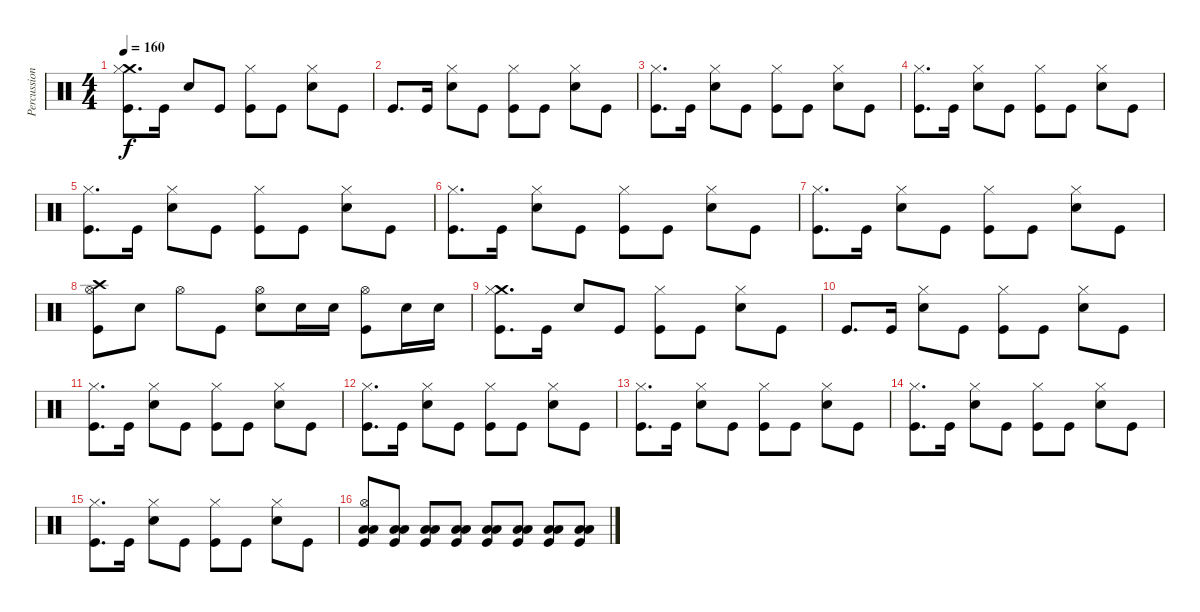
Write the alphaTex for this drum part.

\track ("Percussions" "Percussion") {instrument percussion}
\staff {score}
\articulation defaults
\ts (4 4)
\tempo 160
\clef neutral
\ks c
("Crash medium (hit)" "Hi-Hat (closed)" "Kick (hit)").8{d dy f} "Kick (hit)".16 "Snare (hit) 2".8 "Kick (hit)".8 ("Hi-Hat (closed)" "Kick (hit)").8 "Kick (hit)".8 ("Snare (hit) 2" "Hi-Hat (closed)").8 "Kick (hit)".8 |
"Kick (hit)".8{d} "Kick (hit)".16 ("Snare (hit) 2" "Hi-Hat (closed)").8 "Kick (hit)".8 ("Hi-Hat (closed)" "Kick (hit)").8 "Kick (hit)".8 ("Snare (hit) 2" "Hi-Hat (closed)").8 "Kick (hit)".8 |
("Hi-Hat (closed)" "Kick (hit)").8{d} "Kick (hit)".16 ("Snare (hit) 2" "Hi-Hat (closed)").8 "Kick (hit)".8 ("Hi-Hat (closed)" "Kick (hit)").8 "Kick (hit)".8 ("Snare (hit) 2" "Hi-Hat (closed)").8 "Kick (hit)".8 |
("Hi-Hat (closed)" "Kick (hit)").8{d} "Kick (hit)".16 ("Snare (hit) 2" "Hi-Hat (closed)").8 "Kick (hit)".8 ("Hi-Hat (closed)" "Kick (hit)").8 "Kick (hit)".8 ("Snare (hit) 2" "Hi-Hat (closed)").8 "Kick (hit)".8 |
("Hi-Hat (closed)" "Kick (hit)").8{d} "Kick (hit)".16 ("Snare (hit) 2" "Hi-Hat (closed)").8 "Kick (hit)".8 ("Hi-Hat (closed)" "Kick (hit)").8 "Kick (hit)".8 ("Snare (hit) 2" "Hi-Hat (closed)").8 "Kick (hit)".8 |
("Hi-Hat (closed)" "Kick (hit)").8{d} "Kick (hit)".16 ("Snare (hit) 2" "Hi-Hat (closed)").8 "Kick (hit)".8 ("Hi-Hat (closed)" "Kick (hit)").8 "Kick (hit)".8 ("Snare (hit) 2" "Hi-Hat (closed)").8 "Kick (hit)".8 |
("Hi-Hat (closed)" "Kick (hit)").8{d} "Kick (hit)".16 ("Snare (hit) 2" "Hi-Hat (closed)").8 "Kick (hit)".8 ("Hi-Hat (closed)" "Kick (hit)").8 "Kick (hit)".8 ("Snare (hit) 2" "Hi-Hat (closed)").8 "Kick (hit)".8 |
("Crash high (hit)" "Hi-Hat (open)" "Kick (hit)").8 "Snare (hit) 2".8 "Hi-Hat (open)".8 "Kick (hit)".8 ("Snare (hit) 2" "Hi-Hat (open)").8 "Snare (hit) 2".16 "Snare (hit) 2".16 ("Hi-Hat (open)" "Kick (hit)").8 "Snare (hit) 2".16 "Snare (hit) 2".16 |
("Crash medium (hit)" "Hi-Hat (closed)" "Kick (hit)").8{d} "Kick (hit)".16 "Snare (hit) 2".8 "Kick (hit)".8 ("Hi-Hat (closed)" "Kick (hit)").8 "Kick (hit)".8 ("Snare (hit) 2" "Hi-Hat (closed)").8 "Kick (hit)".8 |
"Kick (hit)".8{d} "Kick (hit)".16 ("Snare (hit) 2" "Hi-Hat (closed)").8 "Kick (hit)".8 ("Hi-Hat (closed)" "Kick (hit)").8 "Kick (hit)".8 ("Snare (hit) 2" "Hi-Hat (closed)").8 "Kick (hit)".8 |
("Hi-Hat (closed)" "Kick (hit)").8{d} "Kick (hit)".16 ("Snare (hit) 2" "Hi-Hat (closed)").8 "Kick (hit)".8 ("Hi-Hat (closed)" "Kick (hit)").8 "Kick (hit)".8 ("Snare (hit) 2" "Hi-Hat (closed)").8 "Kick (hit)".8 |
("Hi-Hat (closed)" "Kick (hit)").8{d} "Kick (hit)".16 ("Snare (hit) 2" "Hi-Hat (closed)").8 "Kick (hit)".8 ("Hi-Hat (closed)" "Kick (hit)").8 "Kick (hit)".8 ("Snare (hit) 2" "Hi-Hat (closed)").8 "Kick (hit)".8 |
("Hi-Hat (closed)" "Kick (hit)").8{d} "Kick (hit)".16 ("Snare (hit) 2" "Hi-Hat (closed)").8 "Kick (hit)".8 ("Hi-Hat (closed)" "Kick (hit)").8 "Kick (hit)".8 ("Snare (hit) 2" "Hi-Hat (closed)").8 "Kick (hit)".8 |
("Hi-Hat (closed)" "Kick (hit)").8{d} "Kick (hit)".16 ("Snare (hit) 2" "Hi-Hat (closed)").8 "Kick (hit)".8 ("Hi-Hat (closed)" "Kick (hit)").8 "Kick (hit)".8 ("Snare (hit) 2" "Hi-Hat (closed)").8 "Kick (hit)".8 |
("Hi-Hat (closed)" "Kick (hit)").8{d} "Kick (hit)".16 ("Snare (hit) 2" "Hi-Hat (closed)").8 "Kick (hit)".8 ("Hi-Hat (closed)" "Kick (hit)").8 "Kick (hit)".8 ("Snare (hit) 2" "Hi-Hat (closed)").8 "Kick (hit)".8 |
("Low Floor Tom (hit)" "Low Floor Tom (hit)" "Hi-Hat (open)" "Kick (hit)").8 ("Low Floor Tom (hit)" "Low Tom (hit)" "Kick (hit)").8 ("Low Floor Tom (hit)" "Low Tom (hit)" "Kick (hit)").8 ("Low Floor Tom (hit)" "Low Tom (hit)" "Kick (hit)").8 ("Low Floor Tom (hit)" "Low Tom (hit)" "Kick (hit)").8 ("Low Floor Tom (hit)" "Low Tom (hit)" "Kick (hit)").8 ("Low Floor Tom (hit)" "Low Tom (hit)" "Kick (hit)").8 ("Low Floor Tom (hit)" "Low Tom (hit)" "Kick (hit)").8
